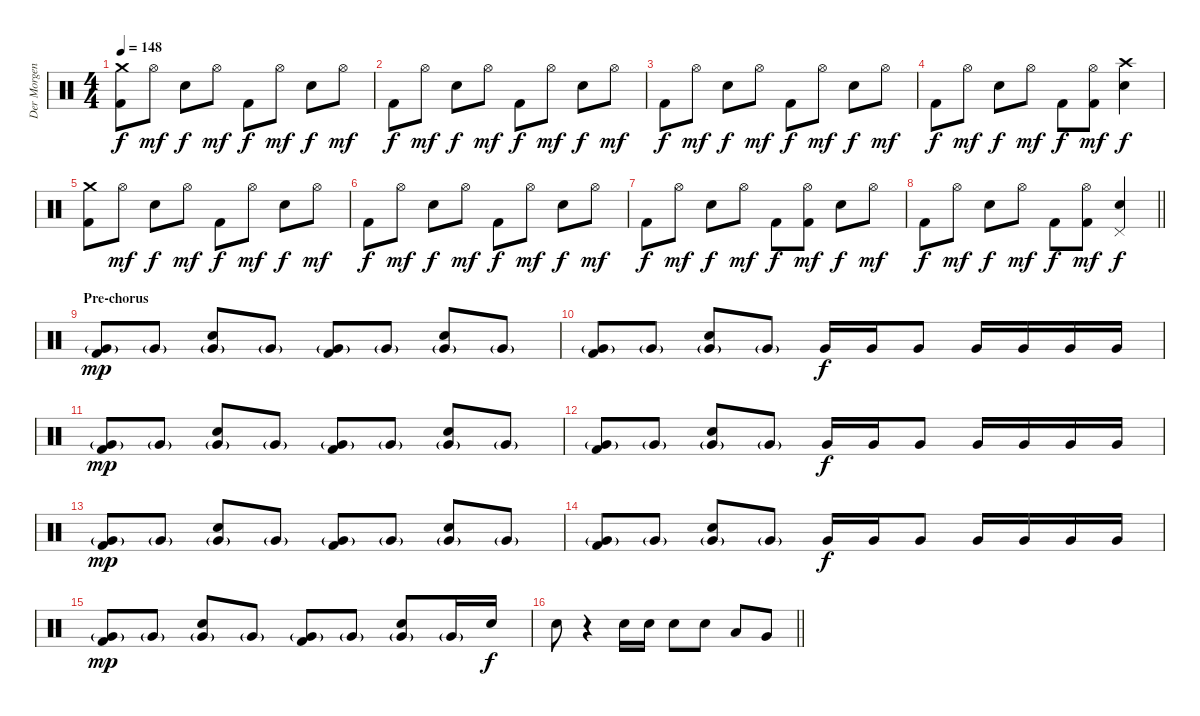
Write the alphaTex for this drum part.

\track ("Der Morgenstern" "Der Morgen") {instrument percussion}
\staff {score}
\articulation defaults
\ts (4 4)
\tempo 148
\clef neutral
\ks c
("Crash medium (hit)" "Kick (hit) 2").8{dy f} "Hi-Hat (open)".8{dy mf} "Electric Snare (hit)".8{dy f} "Hi-Hat (open)".8{dy mf} "Kick (hit) 2".8{dy f} "Hi-Hat (open)".8{dy mf} "Electric Snare (hit)".8{dy f} "Hi-Hat (open)".8{dy mf} |
"Kick (hit) 2".8{dy f} "Hi-Hat (open)".8{dy mf} "Electric Snare (hit)".8{dy f} "Hi-Hat (open)".8{dy mf} "Kick (hit) 2".8{dy f} "Hi-Hat (open)".8{dy mf} "Electric Snare (hit)".8{dy f} "Hi-Hat (open)".8{dy mf} |
"Kick (hit) 2".8{dy f} "Hi-Hat (open)".8{dy mf} "Electric Snare (hit)".8{dy f} "Hi-Hat (open)".8{dy mf} "Kick (hit) 2".8{dy f} "Hi-Hat (open)".8{dy mf} "Electric Snare (hit)".8{dy f} "Hi-Hat (open)".8{dy mf} |
"Kick (hit) 2".8{dy f} "Hi-Hat (open)".8{dy mf} "Electric Snare (hit)".8{dy f} "Hi-Hat (open)".8{dy mf} "Kick (hit) 2".8{dy f} ("Hi-Hat (open)" "Kick (hit) 2").8{dy mf} ("Crash high (hit)" "Electric Snare (hit)").4{dy f} |
("Crash medium (hit)" "Kick (hit) 2").8 "Hi-Hat (open)".8{dy mf} "Electric Snare (hit)".8{dy f} "Hi-Hat (open)".8{dy mf} "Kick (hit) 2".8{dy f} "Hi-Hat (open)".8{dy mf} "Electric Snare (hit)".8{dy f} "Hi-Hat (open)".8{dy mf} |
"Kick (hit) 2".8{dy f} "Hi-Hat (open)".8{dy mf} "Electric Snare (hit)".8{dy f} "Hi-Hat (open)".8{dy mf} "Kick (hit) 2".8{dy f} "Hi-Hat (open)".8{dy mf} "Electric Snare (hit)".8{dy f} "Hi-Hat (open)".8{dy mf} |
"Kick (hit) 2".8{dy f} "Hi-Hat (open)".8{dy mf} "Electric Snare (hit)".8{dy f} "Hi-Hat (open)".8{dy mf} "Kick (hit) 2".8{dy f} ("Hi-Hat (open)" "Kick (hit) 2").8{dy mf} "Electric Snare (hit)".8{dy f} "Hi-Hat (open)".8{dy mf} |
\barLineRight lightlight "Kick (hit) 2".8{dy f} "Hi-Hat (open)".8{dy mf} "Electric Snare (hit)".8{dy f} "Hi-Hat (open)".8{dy mf} "Kick (hit) 2".8{dy f}
("Hi-Hat (open)" "Kick (hit) 2").8{dy mf} ("Pedal Hi-Hat (hit)" "Electric Snare (hit)").4{dy f} |
\section ("" "Pre-chorus")
("Very Low Tom (hit)"{g} "Kick (hit) 2").8{dy mp} "Very Low Tom (hit)"{g}.8 ("Very Low Tom (hit)"{g} "Electric Snare (hit)").8 "Very Low Tom (hit)"{g}.8 ("Very Low Tom (hit)"{g} "Kick (hit) 2").8 "Very Low Tom (hit)"{g}.8 ("Very Low Tom (hit)"{g} "Electric Snare (hit)").8 "Very Low Tom (hit)"{g}.8 |
("Very Low Tom (hit)"{g} "Kick (hit) 2").8 "Very Low Tom (hit)"{g}.8 ("Very Low Tom (hit)"{g} "Electric Snare (hit)").8 "Very Low Tom (hit)"{g}.8 "Very Low Tom (hit)".16{dy f} "Very Low Tom (hit)".16 "Very Low Tom (hit)".8 "Very Low Tom (hit)".16 "Very Low Tom (hit)".16 "Very Low Tom (hit)".16 "Very Low Tom (hit)".16 |
("Very Low Tom (hit)"{g} "Kick (hit) 2").8{dy mp} "Very Low Tom (hit)"{g}.8 ("Very Low Tom (hit)"{g} "Electric Snare (hit)").8 "Very Low Tom (hit)"{g}.8 ("Very Low Tom (hit)"{g} "Kick (hit) 2").8 "Very Low Tom (hit)"{g}.8 ("Very Low Tom (hit)"{g} "Electric Snare (hit)").8 "Very Low Tom (hit)"{g}.8 |
("Very Low Tom (hit)"{g} "Kick (hit) 2").8 "Very Low Tom (hit)"{g}.8 ("Very Low Tom (hit)"{g} "Electric Snare (hit)").8 "Very Low Tom (hit)"{g}.8 "Very Low Tom (hit)".16{dy f} "Very Low Tom (hit)".16 "Very Low Tom (hit)".8 "Very Low Tom (hit)".16 "Very Low Tom (hit)".16 "Very Low Tom (hit)".16 "Very Low Tom (hit)".16 |
("Very Low Tom (hit)"{g} "Kick (hit) 2").8{dy mp} "Very Low Tom (hit)"{g}.8 ("Very Low Tom (hit)"{g} "Electric Snare (hit)").8 "Very Low Tom (hit)"{g}.8 ("Very Low Tom (hit)"{g} "Kick (hit) 2").8 "Very Low Tom (hit)"{g}.8 ("Very Low Tom (hit)"{g} "Electric Snare (hit)").8 "Very Low Tom (hit)"{g}.8 |
("Very Low Tom (hit)"{g} "Kick (hit) 2").8 "Very Low Tom (hit)"{g}.8 ("Very Low Tom (hit)"{g} "Electric Snare (hit)").8 "Very Low Tom (hit)"{g}.8 "Very Low Tom (hit)".16{dy f} "Very Low Tom (hit)".16 "Very Low Tom (hit)".8 "Very Low Tom (hit)".16 "Very Low Tom (hit)".16 "Very Low Tom (hit)".16 "Very Low Tom (hit)".16 |
("Very Low Tom (hit)"{g} "Kick (hit) 2").8{dy mp} "Very Low Tom (hit)"{g}.8 ("Very Low Tom (hit)"{g} "Electric Snare (hit)").8 "Very Low Tom (hit)"{g}.8 ("Very Low Tom (hit)"{g} "Kick (hit) 2").8 "Very Low Tom (hit)"{g}.8 ("Very Low Tom (hit)"{g} "Electric Snare (hit)").8 "Very Low Tom (hit)"{g}.16 "Electric Snare (hit)".16{dy f} |
\barLineRight lightlight "Electric Snare (hit)".8
r.4 "Electric Snare (hit)".16 "Electric Snare (hit)".16 "Electric Snare (hit)".8 "Electric Snare (hit)".8 "Low Tom (hit)".8 "Very Low Tom (hit)".8
